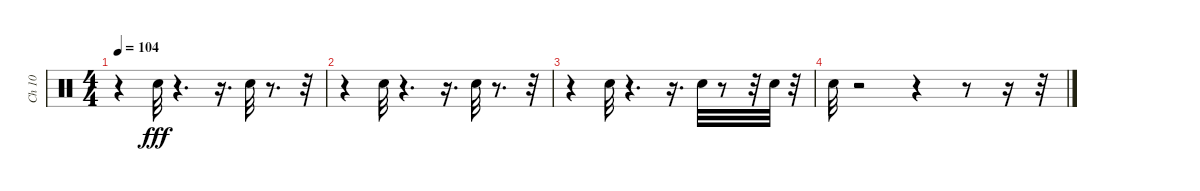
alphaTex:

\track ("Ch 10   " "Ch 10   ") {instrument percussion}
\staff {score}
\articulation defaults
\ts (4 4)
\tempo 104
\clef neutral
\ks c
r.4{dy fff} "Snare (hit) 2".32 r.4{d} r.16{d} "Snare (hit) 2".32 r.8{d} r.32 |
r.4 "Snare (hit) 2".32 r.4{d} r.16{d} "Snare (hit) 2".32 r.8{d} r.32 |
r.4 "Snare (hit) 2".32 r.4{d} r.16{d} "Snare (hit) 2".32 r.8 r.32 "Snare (hit) 2".32 r.32 |
"Snare (hit) 2".32 r.2 r.4 r.8 r.16 r.32
